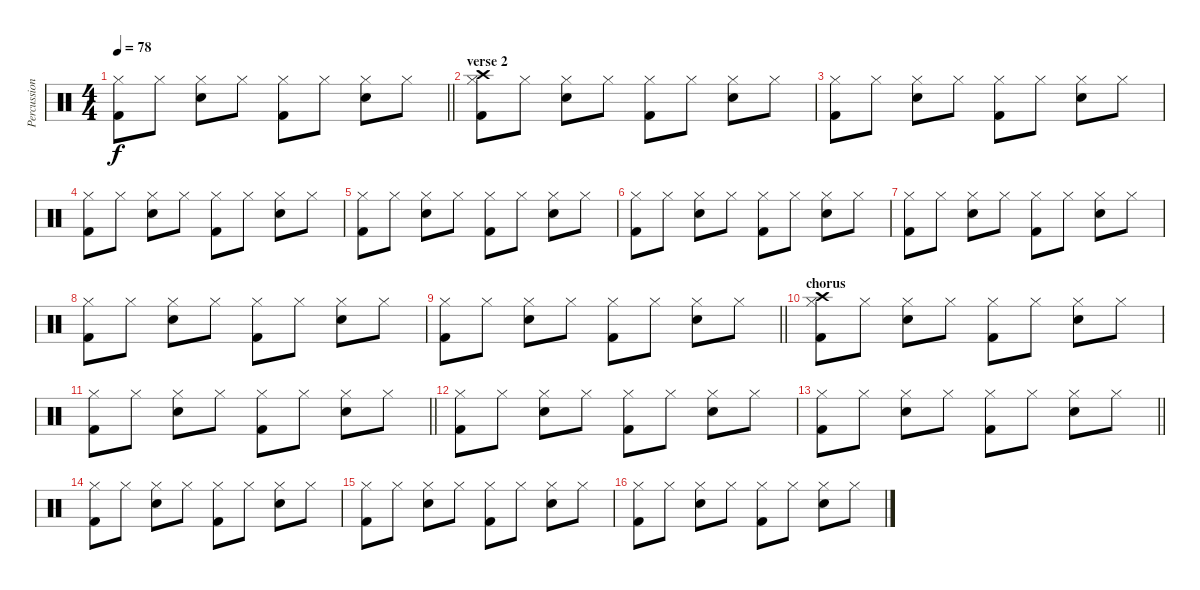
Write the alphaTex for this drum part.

\track ("Percussioni" "Percussion") {instrument percussion}
\staff {score}
\articulation defaults
\ts (4 4)
\tempo 78
\clef neutral
\barLineRight lightlight
\ks c
("Hi-Hat (closed)" "Kick (hit) 2").8{dy f} "Hi-Hat (closed)".8 ("Hi-Hat (closed)" "Snare (hit) 2").8 "Hi-Hat (closed)".8 ("Hi-Hat (closed)" "Kick (hit) 2").8 "Hi-Hat (closed)".8 ("Hi-Hat (closed)" "Snare (hit) 2").8 "Hi-Hat (closed)".8 |
\section ("" "verse 2")
("Hi-Hat (closed)" "Kick (hit) 2" "Crash high (hit)").8 "Hi-Hat (closed)".8 ("Hi-Hat (closed)" "Snare (hit) 2").8 "Hi-Hat (closed)".8 ("Hi-Hat (closed)" "Kick (hit) 2").8 "Hi-Hat (closed)".8 ("Hi-Hat (closed)" "Snare (hit) 2").8 "Hi-Hat (closed)".8 |
("Hi-Hat (closed)" "Kick (hit) 2").8 "Hi-Hat (closed)".8 ("Hi-Hat (closed)" "Snare (hit) 2").8 "Hi-Hat (closed)".8 ("Hi-Hat (closed)" "Kick (hit) 2").8 "Hi-Hat (closed)".8 ("Hi-Hat (closed)" "Snare (hit) 2").8 "Hi-Hat (closed)".8 |
("Hi-Hat (closed)" "Kick (hit) 2").8 "Hi-Hat (closed)".8 ("Hi-Hat (closed)" "Snare (hit) 2").8 "Hi-Hat (closed)".8 ("Hi-Hat (closed)" "Kick (hit) 2").8 "Hi-Hat (closed)".8 ("Hi-Hat (closed)" "Snare (hit) 2").8 "Hi-Hat (closed)".8 |
("Hi-Hat (closed)" "Kick (hit) 2").8 "Hi-Hat (closed)".8 ("Hi-Hat (closed)" "Snare (hit) 2").8 "Hi-Hat (closed)".8 ("Hi-Hat (closed)" "Kick (hit) 2").8 "Hi-Hat (closed)".8 ("Hi-Hat (closed)" "Snare (hit) 2").8 "Hi-Hat (closed)".8 |
("Hi-Hat (closed)" "Kick (hit) 2").8 "Hi-Hat (closed)".8 ("Hi-Hat (closed)" "Snare (hit) 2").8 "Hi-Hat (closed)".8 ("Hi-Hat (closed)" "Kick (hit) 2").8 "Hi-Hat (closed)".8 ("Hi-Hat (closed)" "Snare (hit) 2").8 "Hi-Hat (closed)".8 |
("Hi-Hat (closed)" "Kick (hit) 2").8 "Hi-Hat (closed)".8 ("Hi-Hat (closed)" "Snare (hit) 2").8 "Hi-Hat (closed)".8 ("Hi-Hat (closed)" "Kick (hit) 2").8 "Hi-Hat (closed)".8 ("Hi-Hat (closed)" "Snare (hit) 2").8 "Hi-Hat (closed)".8 |
("Hi-Hat (closed)" "Kick (hit) 2").8 "Hi-Hat (closed)".8 ("Hi-Hat (closed)" "Snare (hit) 2").8 "Hi-Hat (closed)".8 ("Hi-Hat (closed)" "Kick (hit) 2").8 "Hi-Hat (closed)".8 ("Hi-Hat (closed)" "Snare (hit) 2").8 "Hi-Hat (closed)".8 |
\barLineRight lightlight
("Hi-Hat (closed)" "Kick (hit) 2").8 "Hi-Hat (closed)".8 ("Hi-Hat (closed)" "Snare (hit) 2").8 "Hi-Hat (closed)".8 ("Hi-Hat (closed)" "Kick (hit) 2").8 "Hi-Hat (closed)".8 ("Hi-Hat (closed)" "Snare (hit) 2").8 "Hi-Hat (closed)".8 |
\section ("" "chorus")
("Hi-Hat (closed)" "Kick (hit) 2" "Crash high (hit)").8 "Hi-Hat (closed)".8 ("Hi-Hat (closed)" "Snare (hit) 2").8 "Hi-Hat (closed)".8 ("Hi-Hat (closed)" "Kick (hit) 2").8 "Hi-Hat (closed)".8 ("Hi-Hat (closed)" "Snare (hit) 2").8 "Hi-Hat (closed)".8 |
\barLineRight lightlight
("Hi-Hat (closed)" "Kick (hit) 2").8 "Hi-Hat (closed)".8 ("Hi-Hat (closed)" "Snare (hit) 2").8 "Hi-Hat (closed)".8 ("Hi-Hat (closed)" "Kick (hit) 2").8 "Hi-Hat (closed)".8 ("Hi-Hat (closed)" "Snare (hit) 2").8 "Hi-Hat (closed)".8 |
("Hi-Hat (closed)" "Kick (hit) 2").8 "Hi-Hat (closed)".8 ("Hi-Hat (closed)" "Snare (hit) 2").8 "Hi-Hat (closed)".8 ("Hi-Hat (closed)" "Kick (hit) 2").8 "Hi-Hat (closed)".8 ("Hi-Hat (closed)" "Snare (hit) 2").8 "Hi-Hat (closed)".8 |
\barLineRight lightlight
("Hi-Hat (closed)" "Kick (hit) 2").8 "Hi-Hat (closed)".8 ("Hi-Hat (closed)" "Snare (hit) 2").8 "Hi-Hat (closed)".8 ("Hi-Hat (closed)" "Kick (hit) 2").8 "Hi-Hat (closed)".8 ("Hi-Hat (closed)" "Snare (hit) 2").8 "Hi-Hat (closed)".8 |
("Hi-Hat (closed)" "Kick (hit) 2").8 "Hi-Hat (closed)".8 ("Hi-Hat (closed)" "Snare (hit) 2").8 "Hi-Hat (closed)".8 ("Hi-Hat (closed)" "Kick (hit) 2").8 "Hi-Hat (closed)".8 ("Hi-Hat (closed)" "Snare (hit) 2").8 "Hi-Hat (closed)".8 |
("Hi-Hat (closed)" "Kick (hit) 2").8 "Hi-Hat (closed)".8 ("Hi-Hat (closed)" "Snare (hit) 2").8 "Hi-Hat (closed)".8 ("Hi-Hat (closed)" "Kick (hit) 2").8 "Hi-Hat (closed)".8 ("Hi-Hat (closed)" "Snare (hit) 2").8 "Hi-Hat (closed)".8 |
("Hi-Hat (closed)" "Kick (hit) 2").8 "Hi-Hat (closed)".8 ("Hi-Hat (closed)" "Snare (hit) 2").8 "Hi-Hat (closed)".8 ("Hi-Hat (closed)" "Kick (hit) 2").8 "Hi-Hat (closed)".8 ("Hi-Hat (closed)" "Snare (hit) 2").8 "Hi-Hat (closed)".8
